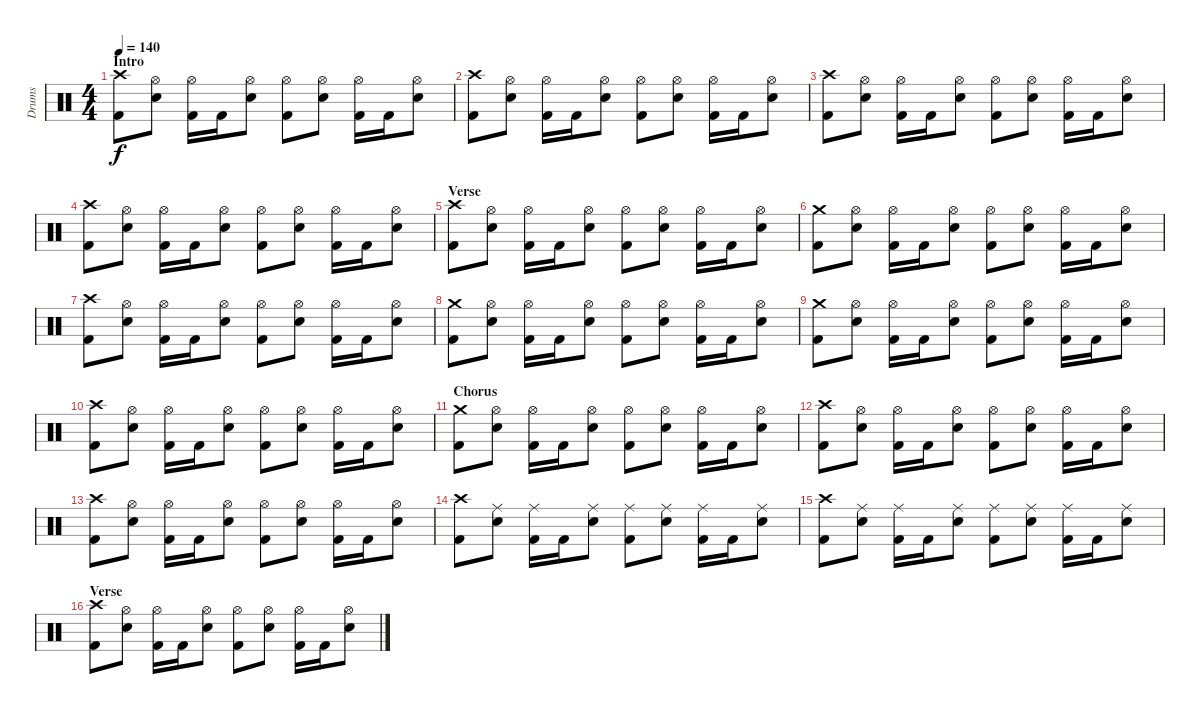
\track ("Drums" "Drums") {instrument percussion}
\staff {score}
\articulation defaults
\ts (4 4)
\section ("" "Intro")
\tempo 140
\clef neutral
\ks c
("Crash high (hit)" "Kick (hit) 2").8{dy f} ("Hi-Hat (open)" "Electric Snare (hit)").8 ("Hi-Hat (open)" "Kick (hit) 2").16 "Kick (hit) 2".16 ("Hi-Hat (open)" "Electric Snare (hit)").8 ("Hi-Hat (open)" "Kick (hit) 2").8 ("Hi-Hat (open)" "Electric Snare (hit)").8 ("Hi-Hat (open)" "Kick (hit) 2").16 "Kick (hit) 2".16 ("Hi-Hat (open)" "Electric Snare (hit)").8 |
("Crash high (hit)" "Kick (hit) 2").8 ("Hi-Hat (open)" "Electric Snare (hit)").8 ("Hi-Hat (open)" "Kick (hit) 2").16 "Kick (hit) 2".16 ("Hi-Hat (open)" "Electric Snare (hit)").8 ("Hi-Hat (open)" "Kick (hit) 2").8 ("Hi-Hat (open)" "Electric Snare (hit)").8 ("Hi-Hat (open)" "Kick (hit) 2").16 "Kick (hit) 2".16 ("Hi-Hat (open)" "Electric Snare (hit)").8 |
("Crash high (hit)" "Kick (hit) 2").8 ("Hi-Hat (open)" "Electric Snare (hit)").8 ("Hi-Hat (open)" "Kick (hit) 2").16 "Kick (hit) 2".16 ("Hi-Hat (open)" "Electric Snare (hit)").8 ("Hi-Hat (open)" "Kick (hit) 2").8 ("Hi-Hat (open)" "Electric Snare (hit)").8 ("Hi-Hat (open)" "Kick (hit) 2").16 "Kick (hit) 2".16 ("Hi-Hat (open)" "Electric Snare (hit)").8 |
("Crash high (hit)" "Kick (hit) 2").8 ("Hi-Hat (open)" "Electric Snare (hit)").8 ("Hi-Hat (open)" "Kick (hit) 2").16 "Kick (hit) 2".16 ("Hi-Hat (open)" "Electric Snare (hit)").8 ("Hi-Hat (open)" "Kick (hit) 2").8 ("Hi-Hat (open)" "Electric Snare (hit)").8 ("Hi-Hat (open)" "Kick (hit) 2").16 "Kick (hit) 2".16 ("Hi-Hat (open)" "Electric Snare (hit)").8 |
\section ("" "Verse")
("Crash high (hit)" "Kick (hit) 2").8 ("Hi-Hat (open)" "Electric Snare (hit)").8 ("Hi-Hat (open)" "Kick (hit) 2").16 "Kick (hit) 2".16 ("Hi-Hat (open)" "Electric Snare (hit)").8 ("Hi-Hat (open)" "Kick (hit) 2").8 ("Hi-Hat (open)" "Electric Snare (hit)").8 ("Hi-Hat (open)" "Kick (hit) 2").16 "Kick (hit) 2".16 ("Hi-Hat (open)" "Electric Snare (hit)").8 |
("Crash medium (hit)" "Kick (hit) 2").8 ("Hi-Hat (open)" "Electric Snare (hit)").8 ("Hi-Hat (open)" "Kick (hit) 2").16 "Kick (hit) 2".16 ("Hi-Hat (open)" "Electric Snare (hit)").8 ("Hi-Hat (open)" "Kick (hit) 2").8 ("Hi-Hat (open)" "Electric Snare (hit)").8 ("Hi-Hat (open)" "Kick (hit) 2").16 "Kick (hit) 2".16 ("Hi-Hat (open)" "Electric Snare (hit)").8 |
("Crash high (hit)" "Kick (hit) 2").8 ("Hi-Hat (open)" "Electric Snare (hit)").8 ("Hi-Hat (open)" "Kick (hit) 2").16 "Kick (hit) 2".16 ("Hi-Hat (open)" "Electric Snare (hit)").8 ("Hi-Hat (open)" "Kick (hit) 2").8 ("Hi-Hat (open)" "Electric Snare (hit)").8 ("Hi-Hat (open)" "Kick (hit) 2").16 "Kick (hit) 2".16 ("Hi-Hat (open)" "Electric Snare (hit)").8 |
("Crash medium (hit)" "Kick (hit) 2").8 ("Hi-Hat (open)" "Electric Snare (hit)").8 ("Hi-Hat (open)" "Kick (hit) 2").16 "Kick (hit) 2".16 ("Hi-Hat (open)" "Electric Snare (hit)").8 ("Hi-Hat (open)" "Kick (hit) 2").8 ("Hi-Hat (open)" "Electric Snare (hit)").8 ("Hi-Hat (open)" "Kick (hit) 2").16 "Kick (hit) 2".16 ("Hi-Hat (open)" "Electric Snare (hit)").8 |
("Crash medium (hit)" "Kick (hit) 2").8 ("Hi-Hat (open)" "Electric Snare (hit)").8 ("Hi-Hat (open)" "Kick (hit) 2").16 "Kick (hit) 2".16 ("Hi-Hat (open)" "Electric Snare (hit)").8 ("Hi-Hat (open)" "Kick (hit) 2").8 ("Hi-Hat (open)" "Electric Snare (hit)").8 ("Hi-Hat (open)" "Kick (hit) 2").16 "Kick (hit) 2".16 ("Hi-Hat (open)" "Electric Snare (hit)").8 |
("Crash high (hit)" "Kick (hit) 2").8 ("Hi-Hat (open)" "Electric Snare (hit)").8 ("Hi-Hat (open)" "Kick (hit) 2").16 "Kick (hit) 2".16 ("Hi-Hat (open)" "Electric Snare (hit)").8 ("Hi-Hat (open)" "Kick (hit) 2").8 ("Hi-Hat (open)" "Electric Snare (hit)").8 ("Hi-Hat (open)" "Kick (hit) 2").16 "Kick (hit) 2".16 ("Hi-Hat (open)" "Electric Snare (hit)").8 |
\section ("" "Chorus")
("Crash medium (hit)" "Kick (hit) 2").8 ("Hi-Hat (open)" "Electric Snare (hit)").8 ("Hi-Hat (open)" "Kick (hit) 2").16 "Kick (hit) 2".16 ("Hi-Hat (open)" "Electric Snare (hit)").8 ("Hi-Hat (open)" "Kick (hit) 2").8 ("Hi-Hat (open)" "Electric Snare (hit)").8 ("Hi-Hat (open)" "Kick (hit) 2").16 "Kick (hit) 2".16 ("Hi-Hat (open)" "Electric Snare (hit)").8 |
("Crash high (hit)" "Kick (hit) 2").8 ("Hi-Hat (open)" "Electric Snare (hit)").8 ("Hi-Hat (open)" "Kick (hit) 2").16 "Kick (hit) 2".16 ("Hi-Hat (open)" "Electric Snare (hit)").8 ("Hi-Hat (open)" "Kick (hit) 2").8 ("Hi-Hat (open)" "Electric Snare (hit)").8 ("Hi-Hat (open)" "Kick (hit) 2").16 "Kick (hit) 2".16 ("Hi-Hat (open)" "Electric Snare (hit)").8 |
("Crash high (hit)" "Kick (hit) 2").8 ("Hi-Hat (open)" "Electric Snare (hit)").8 ("Hi-Hat (open)" "Kick (hit) 2").16 "Kick (hit) 2".16 ("Hi-Hat (open)" "Electric Snare (hit)").8 ("Hi-Hat (open)" "Kick (hit) 2").8 ("Hi-Hat (open)" "Electric Snare (hit)").8 ("Hi-Hat (open)" "Kick (hit) 2").16 "Kick (hit) 2".16 ("Hi-Hat (open)" "Electric Snare (hit)").8 |
("Crash high (hit)" "Kick (hit) 2").8 ("Ride (middle)" "Electric Snare (hit)").8 ("Ride (middle)" "Kick (hit) 2").16 "Kick (hit) 2".16 ("Ride (middle)" "Electric Snare (hit)").8 ("Ride (middle)" "Kick (hit) 2").8 ("Ride (middle)" "Electric Snare (hit)").8 ("Ride (middle)" "Kick (hit) 2").16 "Kick (hit) 2".16 ("Ride (middle)" "Electric Snare (hit)").8 |
("Crash high (hit)" "Kick (hit) 2").8 ("Ride (middle)" "Electric Snare (hit)").8 ("Ride (middle)" "Kick (hit) 2").16 "Kick (hit) 2".16 ("Ride (middle)" "Electric Snare (hit)").8 ("Ride (middle)" "Kick (hit) 2").8 ("Ride (middle)" "Electric Snare (hit)").8 ("Ride (middle)" "Kick (hit) 2").16 "Kick (hit) 2".16 ("Ride (middle)" "Electric Snare (hit)").8 |
\section ("" "Verse")
("Crash high (hit)" "Kick (hit) 2").8 ("Hi-Hat (open)" "Electric Snare (hit)").8 ("Hi-Hat (open)" "Kick (hit) 2").16 "Kick (hit) 2".16 ("Hi-Hat (open)" "Electric Snare (hit)").8 ("Hi-Hat (open)" "Kick (hit) 2").8 ("Hi-Hat (open)" "Electric Snare (hit)").8 ("Hi-Hat (open)" "Kick (hit) 2").16 "Kick (hit) 2".16 ("Hi-Hat (open)" "Electric Snare (hit)").8
